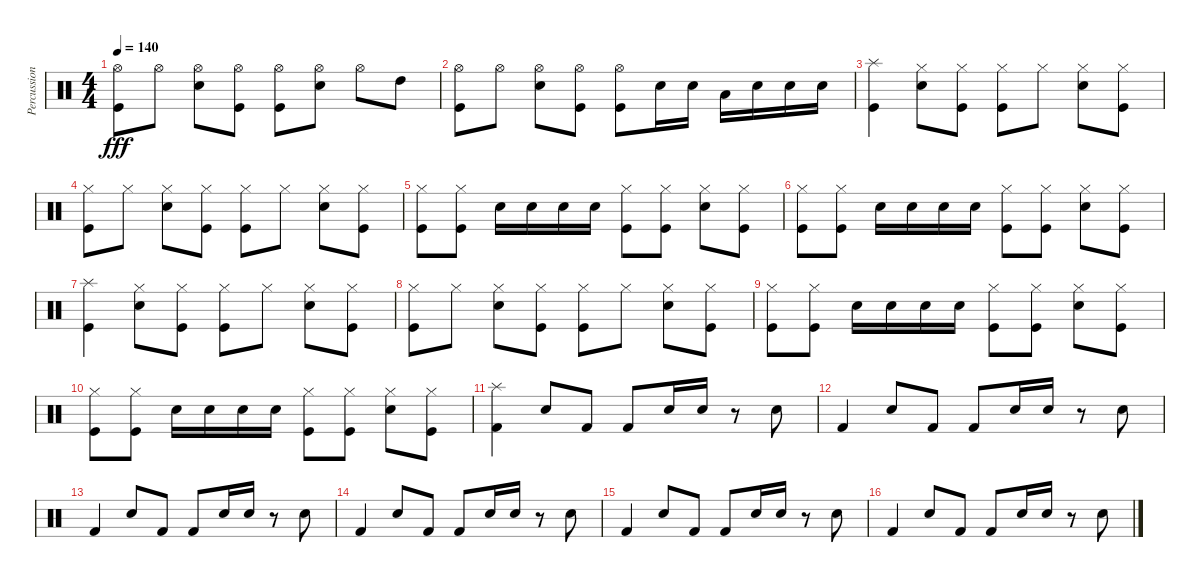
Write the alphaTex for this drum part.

\track ("Percussion" "Percussion") {instrument percussion}
\staff {score}
\articulation defaults
\ts (4 4)
\tempo 140
\clef neutral
\ks c
("Hi-Hat (open)" "Kick (hit)").8{dy fff} "Hi-Hat (open)".8 ("Hi-Hat (open)" "Snare (hit) 2").8 ("Hi-Hat (open)" "Kick (hit)").8 ("Hi-Hat (open)" "Kick (hit)").8 ("Hi-Hat (open)" "Snare (hit) 2").8 "Hi-Hat (open)".8 "High Tom (hit)".8 |
("Hi-Hat (open)" "Kick (hit)").8 "Hi-Hat (open)".8 ("Hi-Hat (open)" "Snare (hit) 2").8 ("Hi-Hat (open)" "Kick (hit)").8 ("Hi-Hat (open)" "Kick (hit)").8 "Snare (hit) 2".16 "Snare (hit) 2".16 "Low Tom (hit)".16 "Snare (hit) 2".16 "Snare (hit) 2".16 "Snare (hit) 2".16 |
("Splash (hit)" "Kick (hit)").4 ("Hi-Hat (closed)" "Snare (hit) 2").8 ("Hi-Hat (closed)" "Kick (hit)").8 ("Hi-Hat (closed)" "Kick (hit)").8 "Hi-Hat (closed)".8 ("Hi-Hat (closed)" "Snare (hit) 2").8 ("Hi-Hat (closed)" "Kick (hit)").8 |
("Hi-Hat (closed)" "Kick (hit)").8 "Hi-Hat (closed)".8 ("Hi-Hat (closed)" "Snare (hit) 2").8 ("Hi-Hat (closed)" "Kick (hit)").8 ("Hi-Hat (closed)" "Kick (hit)").8 "Hi-Hat (closed)".8 ("Hi-Hat (closed)" "Snare (hit) 2").8 ("Hi-Hat (closed)" "Kick (hit)").8 |
("Hi-Hat (closed)" "Kick (hit)").8 ("Hi-Hat (closed)" "Kick (hit)").8 "Snare (hit) 2".16 "Snare (hit) 2".16 "Snare (hit) 2".16 "Snare (hit) 2".16 ("Hi-Hat (closed)" "Kick (hit)").8 ("Hi-Hat (closed)" "Kick (hit)").8 ("Hi-Hat (closed)" "Snare (hit) 2").8 ("Hi-Hat (closed)" "Kick (hit)").8 |
("Hi-Hat (closed)" "Kick (hit)").8 ("Hi-Hat (closed)" "Kick (hit)").8 "Snare (hit) 2".16 "Snare (hit) 2".16 "Snare (hit) 2".16 "Snare (hit) 2".16 ("Hi-Hat (closed)" "Kick (hit)").8 ("Hi-Hat (closed)" "Kick (hit)").8 ("Hi-Hat (closed)" "Snare (hit) 2").8 ("Hi-Hat (closed)" "Kick (hit)").8 |
("Splash (hit)" "Kick (hit)").4 ("Hi-Hat (closed)" "Snare (hit) 2").8 ("Hi-Hat (closed)" "Kick (hit)").8 ("Hi-Hat (closed)" "Kick (hit)").8 "Hi-Hat (closed)".8 ("Hi-Hat (closed)" "Snare (hit) 2").8 ("Hi-Hat (closed)" "Kick (hit)").8 |
("Hi-Hat (closed)" "Kick (hit)").8 "Hi-Hat (closed)".8 ("Hi-Hat (closed)" "Snare (hit) 2").8 ("Hi-Hat (closed)" "Kick (hit)").8 ("Hi-Hat (closed)" "Kick (hit)").8 "Hi-Hat (closed)".8 ("Hi-Hat (closed)" "Snare (hit) 2").8 ("Hi-Hat (closed)" "Kick (hit)").8 |
("Hi-Hat (closed)" "Kick (hit)").8 ("Hi-Hat (closed)" "Kick (hit)").8 "Snare (hit) 2".16 "Snare (hit) 2".16 "Snare (hit) 2".16 "Snare (hit) 2".16 ("Hi-Hat (closed)" "Kick (hit)").8 ("Hi-Hat (closed)" "Kick (hit)").8 ("Hi-Hat (closed)" "Snare (hit) 2").8 ("Hi-Hat (closed)" "Kick (hit)").8 |
("Hi-Hat (closed)" "Kick (hit)").8 ("Hi-Hat (closed)" "Kick (hit)").8 "Snare (hit) 2".16 "Snare (hit) 2".16 "Snare (hit) 2".16 "Snare (hit) 2".16 ("Hi-Hat (closed)" "Kick (hit)").8 ("Hi-Hat (closed)" "Kick (hit)").8 ("Hi-Hat (closed)" "Snare (hit) 2").8 ("Hi-Hat (closed)" "Kick (hit)").8 |
("Splash (hit)" "Kick (hit) 2").4 "Snare (hit) 2".8 "Kick (hit) 2".8 "Kick (hit) 2".8 "Snare (hit) 2".16 "Snare (hit) 2".16 r.8 "Snare (hit) 2".8 |
"Kick (hit) 2".4 "Snare (hit) 2".8 "Kick (hit) 2".8 "Kick (hit) 2".8 "Snare (hit) 2".16 "Snare (hit) 2".16 r.8 "Snare (hit) 2".8 |
"Kick (hit) 2".4 "Snare (hit) 2".8 "Kick (hit) 2".8 "Kick (hit) 2".8 "Snare (hit) 2".16 "Snare (hit) 2".16 r.8 "Snare (hit) 2".8 |
"Kick (hit) 2".4 "Snare (hit) 2".8 "Kick (hit) 2".8 "Kick (hit) 2".8 "Snare (hit) 2".16 "Snare (hit) 2".16 r.8 "Snare (hit) 2".8 |
"Kick (hit) 2".4 "Snare (hit) 2".8 "Kick (hit) 2".8 "Kick (hit) 2".8 "Snare (hit) 2".16 "Snare (hit) 2".16 r.8 "Snare (hit) 2".8 |
"Kick (hit) 2".4 "Snare (hit) 2".8 "Kick (hit) 2".8 "Kick (hit) 2".8 "Snare (hit) 2".16 "Snare (hit) 2".16 r.8 "Snare (hit) 2".8
